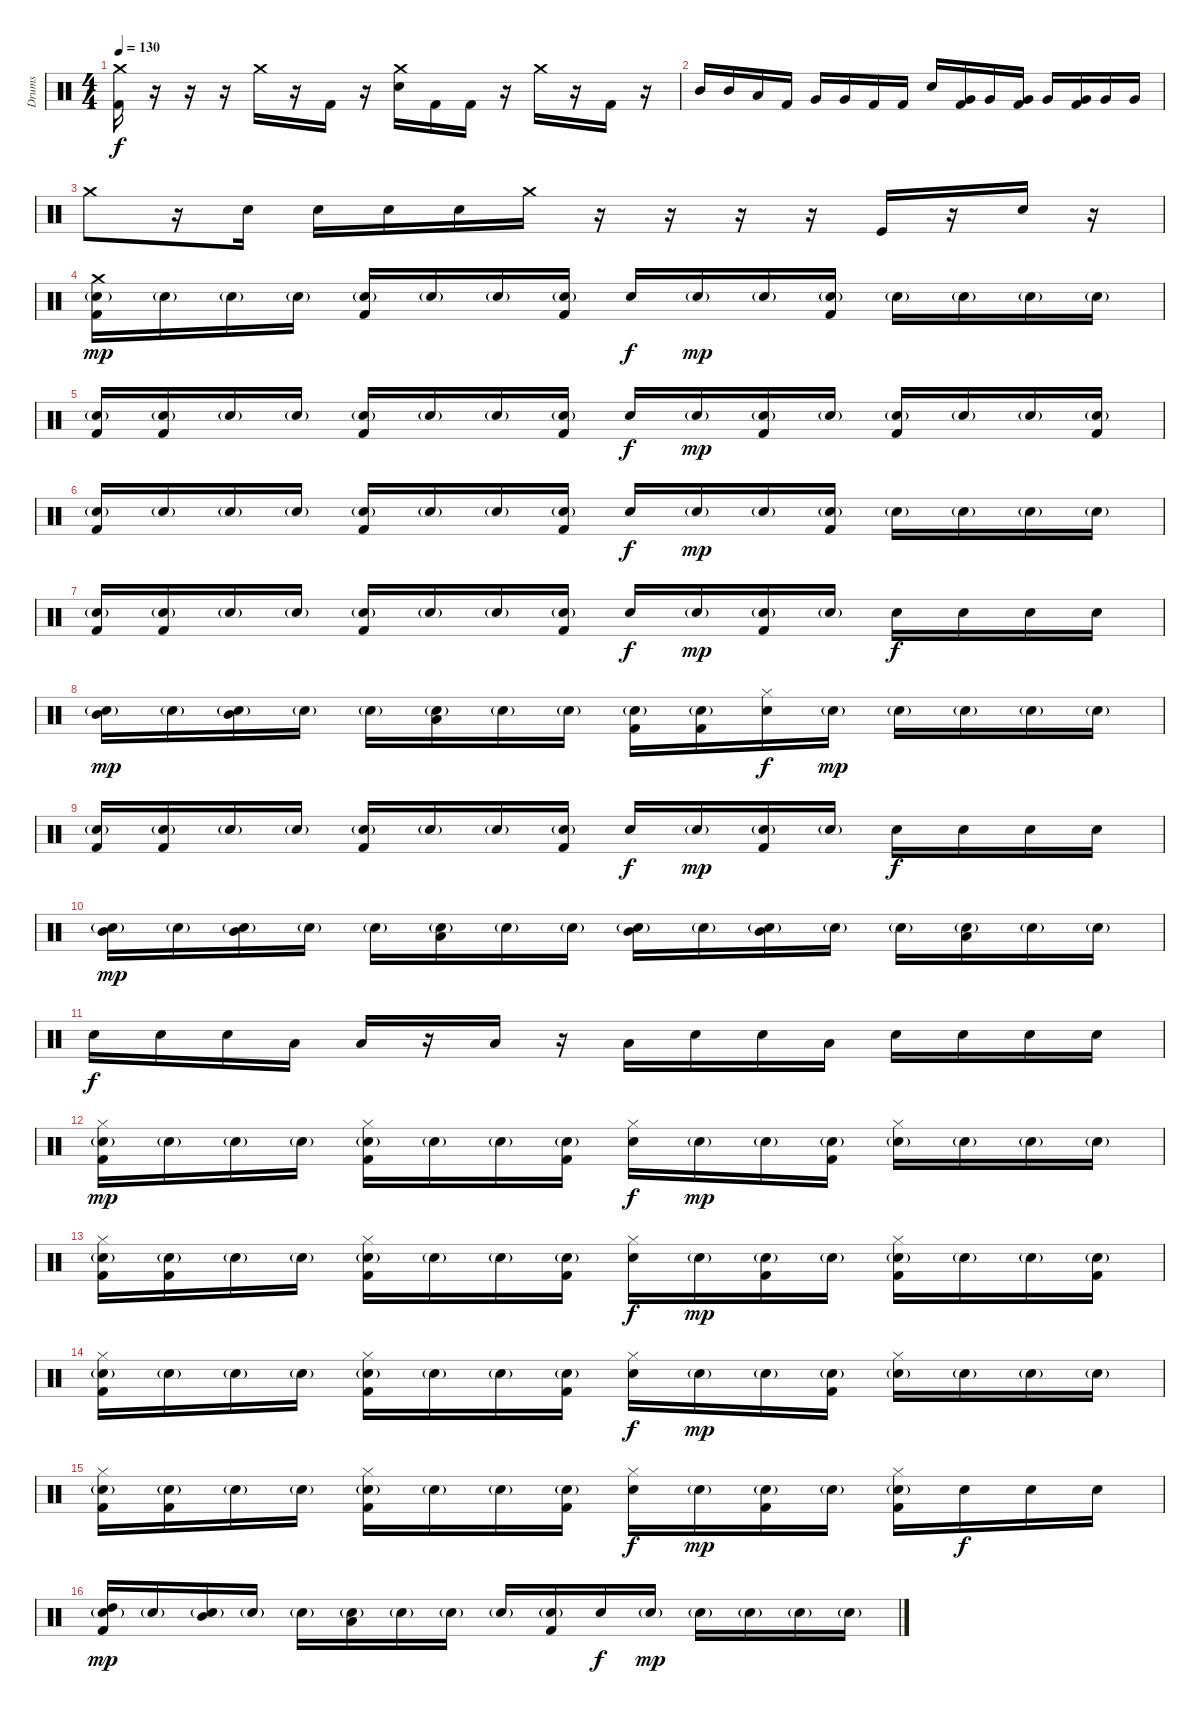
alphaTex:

\track ("Drums" "Drums") {instrument percussion}
\staff {score}
\articulation defaults
\ts (4 4)
\tempo 130
\clef neutral
\ks c
("Crash medium (hit)" "Kick (hit) 2").16{dy f} r.16 r.16 r.16 "Crash medium (hit)".16 r.16 "Kick (hit) 2".16 r.16 ("Crash medium (hit)" "Electric Snare (hit)").16 "Kick (hit) 2".16 "Kick (hit) 2".16 r.16 "Crash medium (hit)".16 r.16 "Kick (hit) 2".16 r.16 |
"Mid Tom (hit)".16 "Mid Tom (hit)".16 "Low Tom (hit)".16 "Kick (hit) 2".16 "Very Low Tom (hit)".16 "Very Low Tom (hit)".16 "Kick (hit) 2".16 "Kick (hit) 2".16 "Electric Snare (hit)".16 ("Very Low Tom (hit)" "Kick (hit) 2").16 "Very Low Tom (hit)".16 ("Very Low Tom (hit)" "Kick (hit) 2").16 "Very Low Tom (hit)".16 ("Very Low Tom (hit)" "Kick (hit) 2").16 "Very Low Tom (hit)".16 "Very Low Tom (hit)".16 |
"Crash medium (hit)".8 r.16 "Electric Snare (hit)".16 "Electric Snare (hit)".16 "Electric Snare (hit)".16 "Electric Snare (hit)".16 "Crash medium (hit)".16 r.16 r.16 r.16 r.16 "Kick (hit)".16 r.16 "Electric Snare (hit)".16 r.16 |
("Crash medium (hit)" "Electric Snare (hit)"{g} "Kick (hit) 2").16{dy mp} "Electric Snare (hit)"{g}.16 "Electric Snare (hit)"{g}.16 "Electric Snare (hit)"{g}.16 ("Electric Snare (hit)"{g} "Kick (hit) 2").16 "Electric Snare (hit)"{g}.16 "Electric Snare (hit)"{g}.16 ("Electric Snare (hit)"{g} "Kick (hit) 2").16 "Electric Snare (hit)".16{dy f} "Electric Snare (hit)"{g}.16{dy mp} "Electric Snare (hit)"{g}.16 ("Electric Snare (hit)"{g} "Kick (hit) 2").16 "Electric Snare (hit)"{g}.16 "Electric Snare (hit)"{g}.16 "Electric Snare (hit)"{g}.16 "Electric Snare (hit)"{g}.16 |
("Electric Snare (hit)"{g} "Kick (hit) 2").16 ("Electric Snare (hit)"{g} "Kick (hit) 2").16 "Electric Snare (hit)"{g}.16 "Electric Snare (hit)"{g}.16 ("Electric Snare (hit)"{g} "Kick (hit) 2").16 "Electric Snare (hit)"{g}.16 "Electric Snare (hit)"{g}.16 ("Electric Snare (hit)"{g} "Kick (hit) 2").16 "Electric Snare (hit)".16{dy f} "Electric Snare (hit)"{g}.16{dy mp} ("Electric Snare (hit)"{g} "Kick (hit) 2").16 "Electric Snare (hit)"{g}.16 ("Electric Snare (hit)"{g} "Kick (hit) 2").16 "Electric Snare (hit)"{g}.16 "Electric Snare (hit)"{g}.16 ("Electric Snare (hit)"{g} "Kick (hit) 2").16 |
("Electric Snare (hit)"{g} "Kick (hit) 2").16 "Electric Snare (hit)"{g}.16 "Electric Snare (hit)"{g}.16 "Electric Snare (hit)"{g}.16 ("Electric Snare (hit)"{g} "Kick (hit) 2").16 "Electric Snare (hit)"{g}.16 "Electric Snare (hit)"{g}.16 ("Electric Snare (hit)"{g} "Kick (hit) 2").16 "Electric Snare (hit)".16{dy f} "Electric Snare (hit)"{g}.16{dy mp} "Electric Snare (hit)"{g}.16 ("Electric Snare (hit)"{g} "Kick (hit) 2").16 "Electric Snare (hit)"{g}.16 "Electric Snare (hit)"{g}.16 "Electric Snare (hit)"{g}.16 "Electric Snare (hit)"{g}.16 |
("Electric Snare (hit)"{g} "Kick (hit) 2").16 ("Electric Snare (hit)"{g} "Kick (hit) 2").16 "Electric Snare (hit)"{g}.16 "Electric Snare (hit)"{g}.16 ("Electric Snare (hit)"{g} "Kick (hit) 2").16 "Electric Snare (hit)"{g}.16 "Electric Snare (hit)"{g}.16 ("Electric Snare (hit)"{g} "Kick (hit) 2").16 "Electric Snare (hit)".16{dy f} "Electric Snare (hit)"{g}.16{dy mp} ("Electric Snare (hit)"{g} "Kick (hit) 2").16 "Electric Snare (hit)"{g}.16 "Electric Snare (hit)".16{dy f} "Electric Snare (hit)".16 "Electric Snare (hit)".16 "Electric Snare (hit)".16 |
("Mid Tom (hit)" "Electric Snare (hit)"{g}).16{dy mp} "Electric Snare (hit)"{g}.16 ("Mid Tom (hit)" "Electric Snare (hit)"{g}).16 "Electric Snare (hit)"{g}.16 "Electric Snare (hit)"{g}.16 ("Low Tom (hit)" "Electric Snare (hit)"{g}).16 "Electric Snare (hit)"{g}.16 "Electric Snare (hit)"{g}.16 ("Kick (hit) 2" "Electric Snare (hit)"{g}).16 ("Kick (hit) 2" "Electric Snare (hit)"{g}).16 ("Hi-Hat (closed)" "Electric Snare (hit)").16{dy f} "Electric Snare (hit)"{g}.16{dy mp} "Electric Snare (hit)"{g}.16 "Electric Snare (hit)"{g}.16 "Electric Snare (hit)"{g}.16 "Electric Snare (hit)"{g}.16 |
("Electric Snare (hit)"{g} "Kick (hit) 2").16 ("Electric Snare (hit)"{g} "Kick (hit) 2").16 "Electric Snare (hit)"{g}.16 "Electric Snare (hit)"{g}.16 ("Electric Snare (hit)"{g} "Kick (hit) 2").16 "Electric Snare (hit)"{g}.16 "Electric Snare (hit)"{g}.16 ("Electric Snare (hit)"{g} "Kick (hit) 2").16 "Electric Snare (hit)".16{dy f} "Electric Snare (hit)"{g}.16{dy mp} ("Electric Snare (hit)"{g} "Kick (hit) 2").16 "Electric Snare (hit)"{g}.16 "Electric Snare (hit)".16{dy f} "Electric Snare (hit)".16 "Electric Snare (hit)".16 "Electric Snare (hit)".16 |
("Mid Tom (hit)" "Electric Snare (hit)"{g}).16{dy mp} "Electric Snare (hit)"{g}.16 ("Mid Tom (hit)" "Electric Snare (hit)"{g}).16 "Electric Snare (hit)"{g}.16 "Electric Snare (hit)"{g}.16 ("Low Tom (hit)" "Electric Snare (hit)"{g}).16 "Electric Snare (hit)"{g}.16 "Electric Snare (hit)"{g}.16 ("Mid Tom (hit)" "Electric Snare (hit)"{g}).16 "Electric Snare (hit)"{g}.16 ("Mid Tom (hit)" "Electric Snare (hit)"{g}).16 "Electric Snare (hit)"{g}.16 "Electric Snare (hit)"{g}.16 ("Low Tom (hit)" "Electric Snare (hit)"{g}).16 "Electric Snare (hit)"{g}.16 "Electric Snare (hit)"{g}.16 |
"Electric Snare (hit)".16{dy f} "Electric Snare (hit)".16 "Electric Snare (hit)".16 "Low Tom (hit)".16 "Low Tom (hit)".16 r.16 "Low Tom (hit)".16 r.16 "Low Tom (hit)".16 "Electric Snare (hit)".16 "Electric Snare (hit)".16 "Low Tom (hit)".16 "Electric Snare (hit)".16 "Electric Snare (hit)".16 "Electric Snare (hit)".16 "Electric Snare (hit)".16 |
("Hi-Hat (closed)" "Electric Snare (hit)"{g} "Kick (hit) 2").16{dy mp} "Electric Snare (hit)"{g}.16 "Electric Snare (hit)"{g}.16 "Electric Snare (hit)"{g}.16 ("Hi-Hat (closed)" "Electric Snare (hit)"{g} "Kick (hit) 2").16 "Electric Snare (hit)"{g}.16 "Electric Snare (hit)"{g}.16 ("Electric Snare (hit)"{g} "Kick (hit) 2").16 ("Hi-Hat (closed)" "Electric Snare (hit)").16{dy f} "Electric Snare (hit)"{g}.16{dy mp} "Electric Snare (hit)"{g}.16 ("Electric Snare (hit)"{g} "Kick (hit) 2").16 ("Hi-Hat (closed)" "Electric Snare (hit)"{g}).16 "Electric Snare (hit)"{g}.16 "Electric Snare (hit)"{g}.16 "Electric Snare (hit)"{g}.16 |
("Hi-Hat (closed)" "Electric Snare (hit)"{g} "Kick (hit) 2").16 ("Electric Snare (hit)"{g} "Kick (hit) 2").16 "Electric Snare (hit)"{g}.16 "Electric Snare (hit)"{g}.16 ("Hi-Hat (closed)" "Electric Snare (hit)"{g} "Kick (hit) 2").16 "Electric Snare (hit)"{g}.16 "Electric Snare (hit)"{g}.16 ("Electric Snare (hit)"{g} "Kick (hit) 2").16 ("Hi-Hat (closed)" "Electric Snare (hit)").16{dy f} "Electric Snare (hit)"{g}.16{dy mp} ("Electric Snare (hit)"{g} "Kick (hit) 2").16 "Electric Snare (hit)"{g}.16 ("Hi-Hat (closed)" "Electric Snare (hit)"{g} "Kick (hit) 2").16 "Electric Snare (hit)"{g}.16 "Electric Snare (hit)"{g}.16 ("Electric Snare (hit)"{g} "Kick (hit) 2").16 |
("Hi-Hat (closed)" "Electric Snare (hit)"{g} "Kick (hit) 2").16 "Electric Snare (hit)"{g}.16 "Electric Snare (hit)"{g}.16 "Electric Snare (hit)"{g}.16 ("Hi-Hat (closed)" "Electric Snare (hit)"{g} "Kick (hit) 2").16 "Electric Snare (hit)"{g}.16 "Electric Snare (hit)"{g}.16 ("Electric Snare (hit)"{g} "Kick (hit) 2").16 ("Hi-Hat (closed)" "Electric Snare (hit)").16{dy f} "Electric Snare (hit)"{g}.16{dy mp} "Electric Snare (hit)"{g}.16 ("Electric Snare (hit)"{g} "Kick (hit) 2").16 ("Hi-Hat (closed)" "Electric Snare (hit)"{g}).16 "Electric Snare (hit)"{g}.16 "Electric Snare (hit)"{g}.16 "Electric Snare (hit)"{g}.16 |
("Hi-Hat (closed)" "Electric Snare (hit)"{g} "Kick (hit) 2").16 ("Electric Snare (hit)"{g} "Kick (hit) 2").16 "Electric Snare (hit)"{g}.16 "Electric Snare (hit)"{g}.16 ("Hi-Hat (closed)" "Electric Snare (hit)"{g} "Kick (hit) 2").16 "Electric Snare (hit)"{g}.16 "Electric Snare (hit)"{g}.16 ("Electric Snare (hit)"{g} "Kick (hit) 2").16 ("Hi-Hat (closed)" "Electric Snare (hit)").16{dy f} "Electric Snare (hit)"{g}.16{dy mp} ("Electric Snare (hit)"{g} "Kick (hit) 2").16 "Electric Snare (hit)"{g}.16 ("Hi-Hat (closed)" "Electric Snare (hit)"{g} "Kick (hit) 2").16 "Electric Snare (hit)".16{dy f} "Electric Snare (hit)".16 "Electric Snare (hit)".16 |
("High Tom (hit)" "Electric Snare (hit)"{g} "Kick (hit) 2").16{dy mp} "Electric Snare (hit)"{g}.16 ("Mid Tom (hit)" "Electric Snare (hit)"{g}).16 "Electric Snare (hit)"{g}.16 "Electric Snare (hit)"{g}.16 ("Low Tom (hit)" "Electric Snare (hit)"{g}).16 "Electric Snare (hit)"{g}.16 "Electric Snare (hit)"{g}.16 "Electric Snare (hit)"{g}.16 ("Electric Snare (hit)"{g} "Kick (hit) 2").16 "Electric Snare (hit)".16{dy f} "Electric Snare (hit)"{g}.16{dy mp} "Electric Snare (hit)"{g}.16 "Electric Snare (hit)"{g}.16 "Electric Snare (hit)"{g}.16 "Electric Snare (hit)"{g}.16
